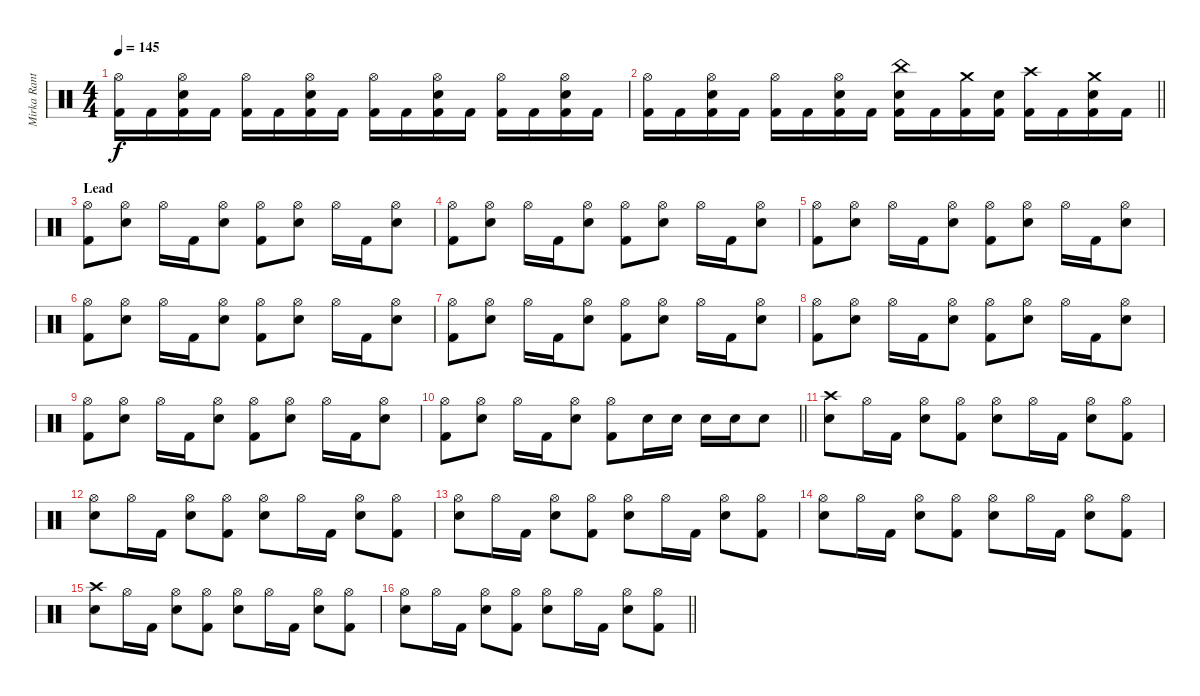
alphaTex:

\track ("Mirka Rantanen" "Mirka Rant") {instrument percussion}
\staff {score}
\articulation defaults
\ts (4 4)
\tempo 145
\clef neutral
\ks c
("Hi-Hat (open)" "Kick (hit) 2").16{dy f} "Kick (hit) 2".16 ("Hi-Hat (open)" "Electric Snare (hit)" "Kick (hit) 2").16 "Kick (hit) 2".16 ("Hi-Hat (open)" "Kick (hit) 2").16 "Kick (hit) 2".16 ("Hi-Hat (open)" "Electric Snare (hit)" "Kick (hit) 2").16 "Kick (hit) 2".16 ("Hi-Hat (open)" "Kick (hit) 2").16 "Kick (hit) 2".16 ("Hi-Hat (open)" "Electric Snare (hit)" "Kick (hit) 2").16 "Kick (hit) 2".16 ("Hi-Hat (open)" "Kick (hit) 2").16 "Kick (hit) 2".16 ("Hi-Hat (open)" "Electric Snare (hit)" "Kick (hit) 2").16 "Kick (hit) 2".16 |
\barLineRight lightlight
("Hi-Hat (open)" "Kick (hit) 2").16 "Kick (hit) 2".16 ("Hi-Hat (open)" "Electric Snare (hit)" "Kick (hit) 2").16 "Kick (hit) 2".16 ("Hi-Hat (open)" "Kick (hit) 2").16 "Kick (hit) 2".16 ("Hi-Hat (open)" "Electric Snare (hit)" "Kick (hit) 2").16 "Kick (hit) 2".16 ("China (hit)" "Electric Snare (hit)" "Kick (hit) 2").16 "Kick (hit) 2".16 ("Crash medium (hit)" "Kick (hit) 2").16 ("Electric Snare (hit)" "Kick (hit) 2").16 ("Crash high (hit)" "Kick (hit) 2").16 "Kick (hit) 2".16 ("Crash medium (hit)" "Electric Snare (hit)" "Kick (hit) 2").16 "Kick (hit) 2".16 |
\section ("" "Lead")
("Hi-Hat (open)" "Kick (hit) 2").8 ("Hi-Hat (open)" "Electric Snare (hit)").8 "Hi-Hat (open)".16 "Kick (hit) 2".16 ("Hi-Hat (open)" "Electric Snare (hit)").8 ("Hi-Hat (open)" "Kick (hit) 2").8 ("Hi-Hat (open)" "Electric Snare (hit)").8 "Hi-Hat (open)".16 "Kick (hit) 2".16 ("Hi-Hat (open)" "Electric Snare (hit)").8 |
("Hi-Hat (open)" "Kick (hit) 2").8 ("Hi-Hat (open)" "Electric Snare (hit)").8 "Hi-Hat (open)".16 "Kick (hit) 2".16 ("Hi-Hat (open)" "Electric Snare (hit)").8 ("Hi-Hat (open)" "Kick (hit) 2").8 ("Hi-Hat (open)" "Electric Snare (hit)").8 "Hi-Hat (open)".16 "Kick (hit) 2".16 ("Hi-Hat (open)" "Electric Snare (hit)").8 |
("Hi-Hat (open)" "Kick (hit) 2").8 ("Hi-Hat (open)" "Electric Snare (hit)").8 "Hi-Hat (open)".16 "Kick (hit) 2".16 ("Hi-Hat (open)" "Electric Snare (hit)").8 ("Hi-Hat (open)" "Kick (hit) 2").8 ("Hi-Hat (open)" "Electric Snare (hit)").8 "Hi-Hat (open)".16 "Kick (hit) 2".16 ("Hi-Hat (open)" "Electric Snare (hit)").8 |
("Hi-Hat (open)" "Kick (hit) 2").8 ("Hi-Hat (open)" "Electric Snare (hit)").8 "Hi-Hat (open)".16 "Kick (hit) 2".16 ("Hi-Hat (open)" "Electric Snare (hit)").8 ("Hi-Hat (open)" "Kick (hit) 2").8 ("Hi-Hat (open)" "Electric Snare (hit)").8 "Hi-Hat (open)".16 "Kick (hit) 2".16 ("Hi-Hat (open)" "Electric Snare (hit)").8 |
("Hi-Hat (open)" "Kick (hit) 2").8 ("Hi-Hat (open)" "Electric Snare (hit)").8 "Hi-Hat (open)".16 "Kick (hit) 2".16 ("Hi-Hat (open)" "Electric Snare (hit)").8 ("Hi-Hat (open)" "Kick (hit) 2").8 ("Hi-Hat (open)" "Electric Snare (hit)").8 "Hi-Hat (open)".16 "Kick (hit) 2".16 ("Hi-Hat (open)" "Electric Snare (hit)").8 |
("Hi-Hat (open)" "Kick (hit) 2").8 ("Hi-Hat (open)" "Electric Snare (hit)").8 "Hi-Hat (open)".16 "Kick (hit) 2".16 ("Hi-Hat (open)" "Electric Snare (hit)").8 ("Hi-Hat (open)" "Kick (hit) 2").8 ("Hi-Hat (open)" "Electric Snare (hit)").8 "Hi-Hat (open)".16 "Kick (hit) 2".16 ("Hi-Hat (open)" "Electric Snare (hit)").8 |
("Hi-Hat (open)" "Kick (hit) 2").8 ("Hi-Hat (open)" "Electric Snare (hit)").8 "Hi-Hat (open)".16 "Kick (hit) 2".16 ("Hi-Hat (open)" "Electric Snare (hit)").8 ("Hi-Hat (open)" "Kick (hit) 2").8 ("Hi-Hat (open)" "Electric Snare (hit)").8 "Hi-Hat (open)".16 "Kick (hit) 2".16 ("Hi-Hat (open)" "Electric Snare (hit)").8 |
\barLineRight lightlight
("Hi-Hat (open)" "Kick (hit) 2").8 ("Hi-Hat (open)" "Electric Snare (hit)").8 "Hi-Hat (open)".16 "Kick (hit) 2".16 ("Hi-Hat (open)" "Electric Snare (hit)").8 ("Hi-Hat (open)" "Kick (hit) 2").8 "Electric Snare (hit)".16 "Electric Snare (hit)".16 "Electric Snare (hit)".16 "Electric Snare (hit)".16 "Electric Snare (hit)".8 |
("Crash high (hit)" "Electric Snare (hit)").8 "Hi-Hat (open)".16 "Kick (hit) 2".16 ("Hi-Hat (open)" "Electric Snare (hit)").8 ("Hi-Hat (open)" "Kick (hit) 2").8 ("Hi-Hat (open)" "Electric Snare (hit)").8 "Hi-Hat (open)".16 "Kick (hit) 2".16 ("Hi-Hat (open)" "Electric Snare (hit)").8 ("Hi-Hat (open)" "Kick (hit) 2").8 |
("Hi-Hat (open)" "Electric Snare (hit)").8 "Hi-Hat (open)".16 "Kick (hit) 2".16 ("Hi-Hat (open)" "Electric Snare (hit)").8 ("Hi-Hat (open)" "Kick (hit) 2").8 ("Hi-Hat (open)" "Electric Snare (hit)").8 "Hi-Hat (open)".16 "Kick (hit) 2".16 ("Hi-Hat (open)" "Electric Snare (hit)").8 ("Hi-Hat (open)" "Kick (hit) 2").8 |
("Hi-Hat (open)" "Electric Snare (hit)").8 "Hi-Hat (open)".16 "Kick (hit) 2".16 ("Hi-Hat (open)" "Electric Snare (hit)").8 ("Hi-Hat (open)" "Kick (hit) 2").8 ("Hi-Hat (open)" "Electric Snare (hit)").8 "Hi-Hat (open)".16 "Kick (hit) 2".16 ("Hi-Hat (open)" "Electric Snare (hit)").8 ("Hi-Hat (open)" "Kick (hit) 2").8 |
("Hi-Hat (open)" "Electric Snare (hit)").8 "Hi-Hat (open)".16 "Kick (hit) 2".16 ("Hi-Hat (open)" "Electric Snare (hit)").8 ("Hi-Hat (open)" "Kick (hit) 2").8 ("Hi-Hat (open)" "Electric Snare (hit)").8 "Hi-Hat (open)".16 "Kick (hit) 2".16 ("Hi-Hat (open)" "Electric Snare (hit)").8 ("Hi-Hat (open)" "Kick (hit) 2").8 |
("Crash high (hit)" "Electric Snare (hit)").8 "Hi-Hat (open)".16 "Kick (hit) 2".16 ("Hi-Hat (open)" "Electric Snare (hit)").8 ("Hi-Hat (open)" "Kick (hit) 2").8 ("Hi-Hat (open)" "Electric Snare (hit)").8 "Hi-Hat (open)".16 "Kick (hit) 2".16 ("Hi-Hat (open)" "Electric Snare (hit)").8 ("Hi-Hat (open)" "Kick (hit) 2").8 |
\barLineRight lightlight
("Hi-Hat (open)" "Electric Snare (hit)").8 "Hi-Hat (open)".16 "Kick (hit) 2".16 ("Hi-Hat (open)" "Electric Snare (hit)").8 ("Hi-Hat (open)" "Kick (hit) 2").8 ("Hi-Hat (open)" "Electric Snare (hit)").8 "Hi-Hat (open)".16 "Kick (hit) 2".16 ("Hi-Hat (open)" "Electric Snare (hit)").8 ("Hi-Hat (open)" "Kick (hit) 2").8
